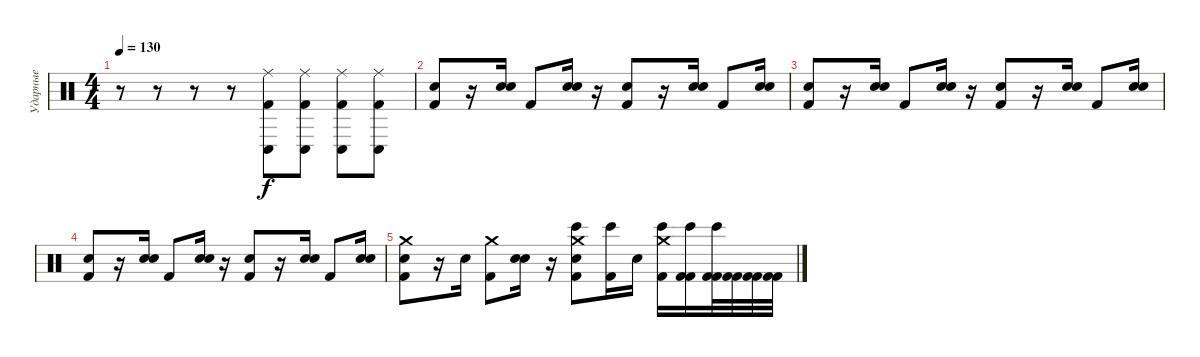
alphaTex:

\track ("Ударные" "Ударные") {instrument percussion}
\staff {score}
\articulation defaults
\ts (4 4)
\tempo 130
\clef neutral
\ks c
r.8{dy f} r.8 r.8 r.8 ("Kick (hit) 2" "Conga low (hit)" "Ride (middle)").8 ("Kick (hit) 2" "Conga low (hit)" "Ride (middle)").8 ("Kick (hit) 2" "Conga low (hit)" "Ride (middle)").8 ("Kick (hit) 2" "Conga low (hit)" "Ride (middle)").8 |
("Kick (hit) 2" "Hand Clap (hit)").8 r.16 ("Electric Snare (hit)" "Hand Clap (hit)").16 "Kick (hit) 2".8 ("Electric Snare (hit)" "Hand Clap (hit)").16 r.16 ("Kick (hit) 2" "Hand Clap (hit)").8 r.16 ("Electric Snare (hit)" "Hand Clap (hit)").16 "Kick (hit) 2".8 ("Electric Snare (hit)" "Hand Clap (hit)").16 |
("Kick (hit) 2" "Hand Clap (hit)").8 r.16 ("Electric Snare (hit)" "Hand Clap (hit)").16 "Kick (hit) 2".8 ("Electric Snare (hit)" "Hand Clap (hit)").16 r.16 ("Kick (hit) 2" "Hand Clap (hit)").8 r.16 ("Electric Snare (hit)" "Hand Clap (hit)").16 "Kick (hit) 2".8 ("Electric Snare (hit)" "Hand Clap (hit)").16 |
("Kick (hit) 2" "Hand Clap (hit)").8 r.16 ("Electric Snare (hit)" "Hand Clap (hit)").16 "Kick (hit) 2".8 ("Electric Snare (hit)" "Hand Clap (hit)").16 r.16 ("Kick (hit) 2" "Hand Clap (hit)").8 r.16 ("Electric Snare (hit)" "Hand Clap (hit)").16 "Kick (hit) 2".8 ("Electric Snare (hit)" "Hand Clap (hit)").16 |
("Kick (hit) 2" "Hand Clap (hit)" "Crash medium (hit)").8 r.16 "Hand Clap (hit)".16 ("Kick (hit) 2" "Crash medium (hit)").8 ("Electric Snare (hit)" "Hand Clap (hit)").16 r.16 ("Kick (hit) 2" "Hand Clap (hit)" "Bongo High (hit)" "Crash medium (hit)").8 ("Kick (hit) 2" "Bongo High (hit)").16 "Hand Clap (hit)".16 ("Kick (hit) 2" "Bongo High (hit)" "Crash medium (hit)").16 ("Kick (hit) 2" "Bongo High (hit)" "Kick (hit) 2").16 ("Kick (hit) 2" "Bongo High (hit)" "Kick (hit) 2").32 ("Kick (hit) 2" "Kick (hit) 2").32 ("Kick (hit) 2" "Kick (hit) 2").32 ("Kick (hit) 2" "Kick (hit) 2").32
